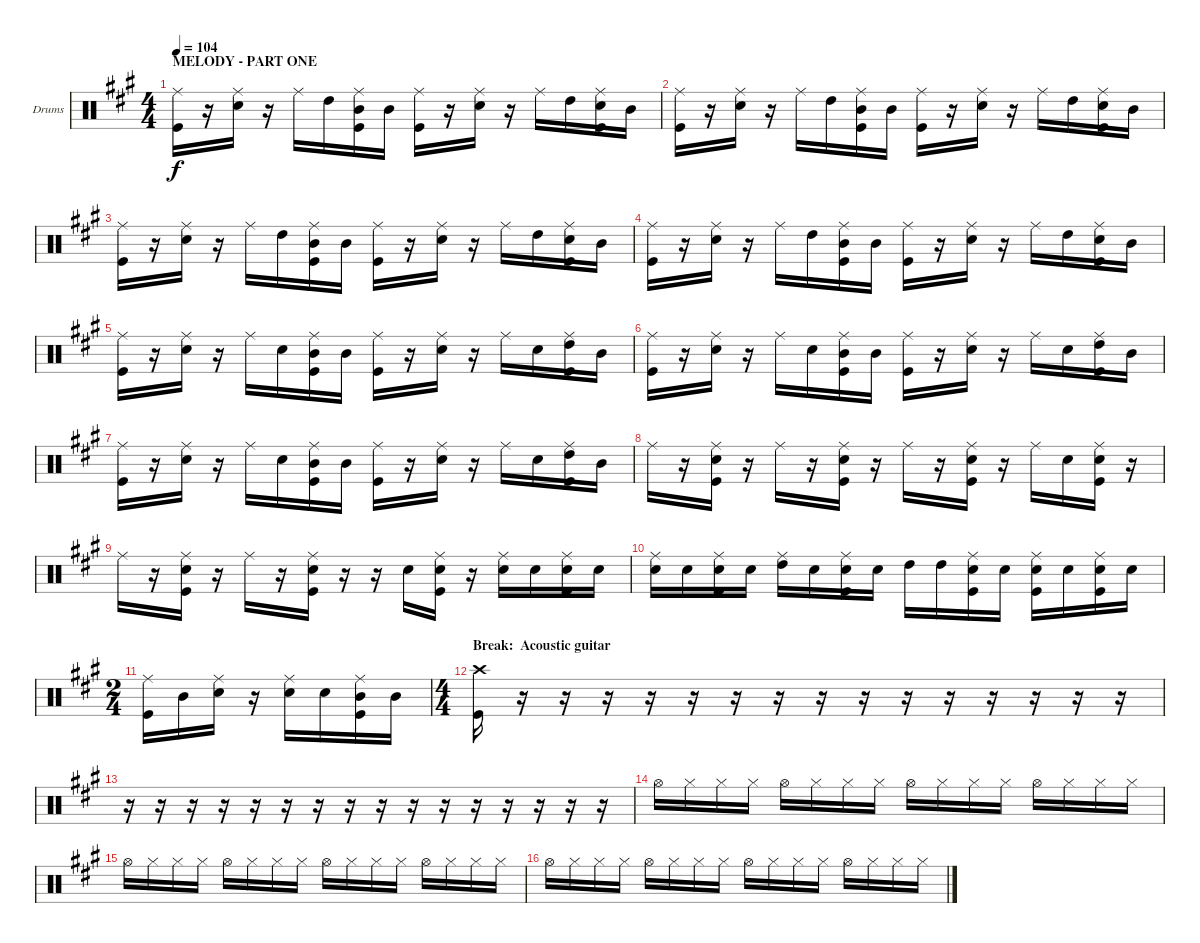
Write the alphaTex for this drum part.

\bracketExtendMode groupsimilarinstruments
\firstSystemTrackNameOrientation horizontal
\otherSystemsTrackNameOrientation horizontal
\track ("Drumkit" "Drums") {instrument percussion}
\staff {score}
\articulation defaults
\ts (4 4)
\section ("" "MELODY - PART ONE")
\tempo 104
\clef neutral
\ks a
("Ride (middle)" "Kick (hit)").16{dy f} r.16 ("Ride (middle)" "Snare (hit) 2").16 r.16 "Ride (middle)".16 "High Tom (hit)".16 ("Ride (middle)" "Mid Tom (hit)" "Kick (hit)").16 "Mid Tom (hit)".16 ("Ride (middle)" "Kick (hit)").16 r.16 ("Ride (middle)" "Snare (hit) 2").16 r.16 "Ride (middle)".16 "High Tom (hit)".16 ("Ride (middle)" "Snare (hit) 2" "Kick (hit)").16 "Mid Tom (hit)".16 |
("Ride (middle)" "Kick (hit)").16 r.16 ("Ride (middle)" "Snare (hit) 2").16 r.16 "Ride (middle)".16 "High Tom (hit)".16 ("Ride (middle)" "Mid Tom (hit)" "Kick (hit)").16 "Mid Tom (hit)".16 ("Ride (middle)" "Kick (hit)").16 r.16 ("Ride (middle)" "Snare (hit) 2").16 r.16 "Ride (middle)".16 "High Tom (hit)".16 ("Ride (middle)" "Snare (hit) 2" "Kick (hit)").16 "Mid Tom (hit)".16 |
("Ride (middle)" "Kick (hit)").16 r.16 ("Ride (middle)" "Snare (hit) 2").16 r.16 "Ride (middle)".16 "High Tom (hit)".16 ("Ride (middle)" "Mid Tom (hit)" "Kick (hit)").16 "Mid Tom (hit)".16 ("Ride (middle)" "Kick (hit)").16 r.16 ("Ride (middle)" "Snare (hit) 2").16 r.16 "Ride (middle)".16 "High Tom (hit)".16 ("Ride (middle)" "Snare (hit) 2" "Kick (hit)").16 "Mid Tom (hit)".16 |
("Ride (middle)" "Kick (hit)").16 r.16 ("Ride (middle)" "Snare (hit) 2").16 r.16 "Ride (middle)".16 "High Tom (hit)".16 ("Ride (middle)" "Mid Tom (hit)" "Kick (hit)").16 "Mid Tom (hit)".16 ("Ride (middle)" "Kick (hit)").16 r.16 ("Ride (middle)" "Snare (hit) 2").16 r.16 "Ride (middle)".16 "High Tom (hit)".16 ("Ride (middle)" "Snare (hit) 2" "Kick (hit)").16 "Mid Tom (hit)".16 |
("Ride (middle)" "Kick (hit)").16 r.16 ("Ride (middle)" "Snare (hit) 2").16 r.16 "Ride (middle)".16 "Snare (hit) 2".16 ("Ride (middle)" "Mid Tom (hit)" "Kick (hit)").16 "Mid Tom (hit)".16 ("Ride (middle)" "Kick (hit)").16 r.16 ("Ride (middle)" "Snare (hit) 2").16 r.16 "Ride (middle)".16 "Snare (hit) 2".16 ("Ride (middle)" "High Tom (hit)" "Kick (hit)").16 "Mid Tom (hit)".16 |
("Ride (middle)" "Kick (hit)").16 r.16 ("Ride (middle)" "Snare (hit) 2").16 r.16 "Ride (middle)".16 "Snare (hit) 2".16 ("Ride (middle)" "Mid Tom (hit)" "Kick (hit)").16 "Mid Tom (hit)".16 ("Ride (middle)" "Kick (hit)").16 r.16 ("Ride (middle)" "Snare (hit) 2").16 r.16 "Ride (middle)".16 "Snare (hit) 2".16 ("Ride (middle)" "High Tom (hit)" "Kick (hit)").16 "Mid Tom (hit)".16 |
("Ride (middle)" "Kick (hit)").16 r.16 ("Ride (middle)" "Snare (hit) 2").16 r.16 "Ride (middle)".16 "Snare (hit) 2".16 ("Ride (middle)" "Mid Tom (hit)" "Kick (hit)").16 "Mid Tom (hit)".16 ("Ride (middle)" "Kick (hit)").16 r.16 ("Ride (middle)" "Snare (hit) 2").16 r.16 "Ride (middle)".16 "Snare (hit) 2".16 ("Ride (middle)" "High Tom (hit)" "Kick (hit)").16 "Mid Tom (hit)".16 |
"Ride (middle)".16 r.16 ("Ride (middle)" "Snare (hit) 2" "Kick (hit)").16 r.16 "Ride (middle)".16 r.16 ("Ride (middle)" "Snare (hit) 2" "Kick (hit)").16 r.16 "Ride (middle)".16 r.16 ("Ride (middle)" "Snare (hit) 2" "Kick (hit)").16 r.16 "Ride (middle)".16 "Snare (hit) 2".16 ("Ride (middle)" "Snare (hit) 2" "Kick (hit)").16 r.16 |
"Ride (middle)".16 r.16 ("Ride (middle)" "Snare (hit) 2" "Kick (hit)").16 r.16 "Ride (middle)".16 r.16 ("Ride (middle)" "Snare (hit) 2" "Kick (hit)").16 r.16 r.16 "Snare (hit) 2".16 ("Ride (middle)" "Snare (hit) 2" "Kick (hit)").16 r.16 ("Ride (middle)" "Snare (hit) 2").16 "Snare (hit) 2".16 ("Ride (middle)" "Snare (hit) 2" "Kick (hit)").16 "Snare (hit) 2".16 |
("Ride (middle)" "Snare (hit) 2").16 "Snare (hit) 2".16 ("Ride (middle)" "Snare (hit) 2" "Kick (hit)").16 "Snare (hit) 2".16 ("Ride (middle)" "High Tom (hit)").16 "Snare (hit) 2".16 ("Ride (middle)" "Snare (hit) 2" "Kick (hit)").16 "Snare (hit) 2".16 "High Tom (hit)".16 "High Tom (hit)".16 ("Ride (middle)" "Snare (hit) 2" "Kick (hit)").16 "Snare (hit) 2".16 ("Ride (middle)" "Snare (hit) 2" "Kick (hit)").16 "Snare (hit) 2".16 ("Ride (middle)" "Snare (hit) 2" "Kick (hit)").16 "Snare (hit) 2".16 |
\ts (2 4)
("Ride (middle)" "Kick (hit)").16 "Mid Tom (hit)".16 ("Ride (middle)" "Snare (hit) 2").16 r.16 ("Ride (middle)" "Snare (hit) 2").16 "Snare (hit) 2".16 ("Ride (middle)" "Mid Tom (hit)" "Kick (hit)").16 "Mid Tom (hit)".16 |
\ts (4 4)
\section ("" "Break:  Acoustic guitar")
("Crash high (hit)" "Kick (hit)").16 r.16 r.16 r.16 r.16 r.16 r.16 r.16 r.16 r.16 r.16 r.16 r.16 r.16 r.16 r.16 |
r.16 r.16 r.16 r.16 r.16 r.16 r.16 r.16 r.16 r.16 r.16 r.16 r.16 r.16 r.16 r.16 |
"Hi-Hat (open)".16 "Hi-Hat (closed)".16 "Hi-Hat (closed)".16 "Hi-Hat (closed)".16 "Hi-Hat (open)".16 "Hi-Hat (closed)".16 "Hi-Hat (closed)".16 "Hi-Hat (closed)".16 "Hi-Hat (open)".16 "Hi-Hat (closed)".16 "Hi-Hat (closed)".16 "Hi-Hat (closed)".16 "Hi-Hat (open)".16 "Hi-Hat (closed)".16 "Hi-Hat (closed)".16 "Hi-Hat (closed)".16 |
"Hi-Hat (open)".16 "Hi-Hat (closed)".16 "Hi-Hat (closed)".16 "Hi-Hat (closed)".16 "Hi-Hat (open)".16 "Hi-Hat (closed)".16 "Hi-Hat (closed)".16 "Hi-Hat (closed)".16 "Hi-Hat (open)".16 "Hi-Hat (closed)".16 "Hi-Hat (closed)".16 "Hi-Hat (closed)".16 "Hi-Hat (open)".16 "Hi-Hat (closed)".16 "Hi-Hat (closed)".16 "Hi-Hat (closed)".16 |
"Hi-Hat (open)".16 "Hi-Hat (closed)".16 "Hi-Hat (closed)".16 "Hi-Hat (closed)".16 "Hi-Hat (open)".16 "Hi-Hat (closed)".16 "Hi-Hat (closed)".16 "Hi-Hat (closed)".16 "Hi-Hat (open)".16 "Hi-Hat (closed)".16 "Hi-Hat (closed)".16 "Hi-Hat (closed)".16 "Hi-Hat (open)".16 "Hi-Hat (closed)".16 "Hi-Hat (closed)".16 "Hi-Hat (closed)".16
